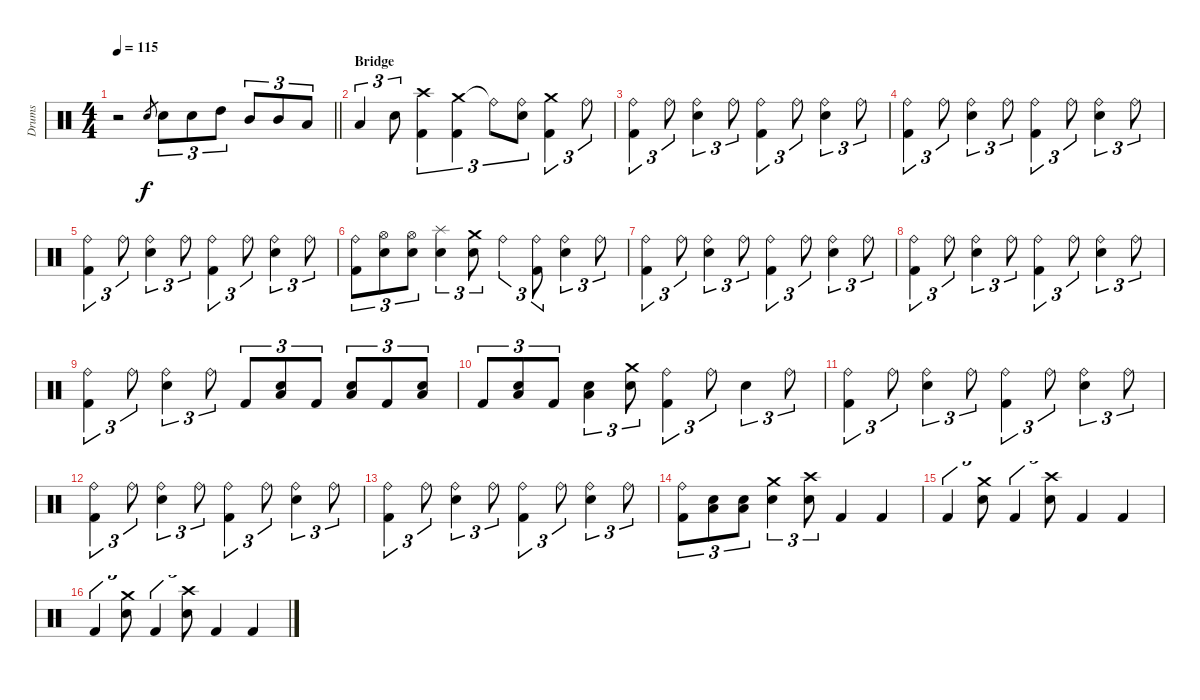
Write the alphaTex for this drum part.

\track ("Drums" "Drums") {instrument percussion}
\staff {score}
\articulation defaults
\ts (4 4)
\tempo 115
\clef neutral
\barLineRight lightlight
\ks c
r.2{dy f} "Electric Snare (hit)".8{gr} "Electric Snare (hit)".8{tu (3 2)} "Electric Snare (hit)".8{tu (3 2)} "High Tom (hit)".8{tu (3 2)} "Mid Tom (hit)".8{tu (3 2)} "Mid Tom (hit)".8{tu (3 2)} "Low Tom (hit)".8{tu (3 2)} |
\section ("" "Bridge")
"Low Floor Tom (hit)".4{tu (3 2)} "Electric Snare (hit)".8{tu (3 2)} ("Crash high (hit)" "Kick (hit) 2").4{tu (3 2)} ("Crash medium (hit)" "Kick (hit) 2").4{tu (3 2)} "Ride (bell)"{t}.8{tu (3 2)} ("Ride (bell)" "Electric Snare (hit)").8{tu (3 2)} ("Crash medium (hit)" "Kick (hit) 2").4{tu (3 2)} "Ride (bell)".8{tu (3 2)} |
("Ride (bell)" "Kick (hit) 2").4{tu (3 2)} "Ride (bell)".8{tu (3 2)} ("Ride (bell)" "Electric Snare (hit)").4{tu (3 2)} "Ride (bell)".8{tu (3 2)} ("Ride (bell)" "Kick (hit) 2").4{tu (3 2)} "Ride (bell)".8{tu (3 2)} ("Ride (bell)" "Electric Snare (hit)").4{tu (3 2)} "Ride (bell)".8{tu (3 2)} |
("Ride (bell)" "Kick (hit) 2").4{tu (3 2)} "Ride (bell)".8{tu (3 2)} ("Ride (bell)" "Electric Snare (hit)").4{tu (3 2)} "Ride (bell)".8{tu (3 2)} ("Ride (bell)" "Kick (hit) 2").4{tu (3 2)} "Ride (bell)".8{tu (3 2)} ("Ride (bell)" "Electric Snare (hit)").4{tu (3 2)} "Ride (bell)".8{tu (3 2)} |
("Ride (bell)" "Kick (hit) 2").4{tu (3 2)} "Ride (bell)".8{tu (3 2)} ("Ride (bell)" "Electric Snare (hit)").4{tu (3 2)} "Ride (bell)".8{tu (3 2)} ("Ride (bell)" "Kick (hit) 2").4{tu (3 2)} "Ride (bell)".8{tu (3 2)} ("Ride (bell)" "Electric Snare (hit)").4{tu (3 2)} "Ride (bell)".8{tu (3 2)} |
("Ride (bell)" "Kick (hit) 2").8{tu (3 2)} ("Hi-Hat (open)" "Electric Snare (hit)").8{tu (3 2)} ("Hi-Hat (open)" "Electric Snare (hit)").8{tu (3 2)} ("Splash (hit)" "Electric Snare (hit)").4{tu (3 2)} ("Crash medium (hit)" "Electric Snare (hit)").8{tu (3 2)} "Ride (bell)".4{tu (3 2)} ("Ride (bell)" "Kick (hit) 2").8{tu (3 2)} ("Ride (bell)" "Electric Snare (hit)").4{tu (3 2)} "Ride (bell)".8{tu (3 2)} |
("Ride (bell)" "Kick (hit) 2").4{tu (3 2)} "Ride (bell)".8{tu (3 2)} ("Ride (bell)" "Electric Snare (hit)").4{tu (3 2)} "Ride (bell)".8{tu (3 2)} ("Ride (bell)" "Kick (hit) 2").4{tu (3 2)} "Ride (bell)".8{tu (3 2)} ("Ride (bell)" "Electric Snare (hit)").4{tu (3 2)} "Ride (bell)".8{tu (3 2)} |
("Ride (bell)" "Kick (hit) 2").4{tu (3 2)} "Ride (bell)".8{tu (3 2)} ("Ride (bell)" "Electric Snare (hit)").4{tu (3 2)} "Ride (bell)".8{tu (3 2)} ("Ride (bell)" "Kick (hit) 2").4{tu (3 2)} "Ride (bell)".8{tu (3 2)} ("Ride (bell)" "Electric Snare (hit)").4{tu (3 2)} "Ride (bell)".8{tu (3 2)} |
("Ride (bell)" "Kick (hit) 2").4{tu (3 2)} "Ride (bell)".8{tu (3 2)} ("Ride (bell)" "Electric Snare (hit)").4{tu (3 2)} "Ride (bell)".8{tu (3 2)} "Kick (hit) 2".8{tu (3 2)} ("Low Floor Tom (hit)" "Electric Snare (hit)").8{tu (3 2)} "Kick (hit) 2".8{tu (3 2)} ("Low Floor Tom (hit)" "Electric Snare (hit)").8{tu (3 2)} "Kick (hit) 2".8{tu (3 2)} ("Low Floor Tom (hit)" "Electric Snare (hit)").8{tu (3 2)} |
"Kick (hit) 2".8{tu (3 2)} ("Low Floor Tom (hit)" "Electric Snare (hit)").8{tu (3 2)} "Kick (hit) 2".8{tu (3 2)} ("Low Floor Tom (hit)" "Electric Snare (hit)").4{tu (3 2)} ("Crash medium (hit)" "Electric Snare (hit)").8{tu (3 2)} ("Ride (bell)" "Kick (hit) 2").4{tu (3 2)} "Ride (bell)".8{tu (3 2)} "Electric Snare (hit)".4{tu (3 2)} "Ride (bell)".8{tu (3 2)} |
("Ride (bell)" "Kick (hit) 2").4{tu (3 2)} "Ride (bell)".8{tu (3 2)} ("Ride (bell)" "Electric Snare (hit)").4{tu (3 2)} "Ride (bell)".8{tu (3 2)} ("Ride (bell)" "Kick (hit) 2").4{tu (3 2)} "Ride (bell)".8{tu (3 2)} ("Ride (bell)" "Electric Snare (hit)").4{tu (3 2)} "Ride (bell)".8{tu (3 2)} |
("Ride (bell)" "Kick (hit) 2").4{tu (3 2)} "Ride (bell)".8{tu (3 2)} ("Ride (bell)" "Electric Snare (hit)").4{tu (3 2)} "Ride (bell)".8{tu (3 2)} ("Ride (bell)" "Kick (hit) 2").4{tu (3 2)} "Ride (bell)".8{tu (3 2)} ("Ride (bell)" "Electric Snare (hit)").4{tu (3 2)} "Ride (bell)".8{tu (3 2)} |
("Ride (bell)" "Kick (hit) 2").4{tu (3 2)} "Ride (bell)".8{tu (3 2)} ("Ride (bell)" "Electric Snare (hit)").4{tu (3 2)} "Ride (bell)".8{tu (3 2)} ("Ride (bell)" "Kick (hit) 2").4{tu (3 2)} "Ride (bell)".8{tu (3 2)} ("Ride (bell)" "Electric Snare (hit)").4{tu (3 2)} "Ride (bell)".8{tu (3 2)} |
("Ride (bell)" "Kick (hit) 2").8{tu (3 2)} ("Low Floor Tom (hit)" "Electric Snare (hit)").8{tu (3 2)} ("Low Floor Tom (hit)" "Electric Snare (hit)").8{tu (3 2)} ("Crash medium (hit)" "Electric Snare (hit)").4{tu (3 2)} ("Crash high (hit)" "Electric Snare (hit)").8{tu (3 2)} "Kick (hit) 2".4 "Kick (hit) 2".4 |
"Kick (hit) 2".4{tu (3 2)} ("Crash medium (hit)" "Electric Snare (hit)").8{tu (3 2)} "Kick (hit) 2".4{tu (3 2)} ("Crash high (hit)" "Electric Snare (hit)").8{tu (3 2)} "Kick (hit) 2".4 "Kick (hit) 2".4 |
"Kick (hit) 2".4{tu (3 2)} ("Crash medium (hit)" "Electric Snare (hit)").8{tu (3 2)} "Kick (hit) 2".4{tu (3 2)} ("Crash high (hit)" "Electric Snare (hit)").8{tu (3 2)} "Kick (hit) 2".4 "Kick (hit) 2".4
